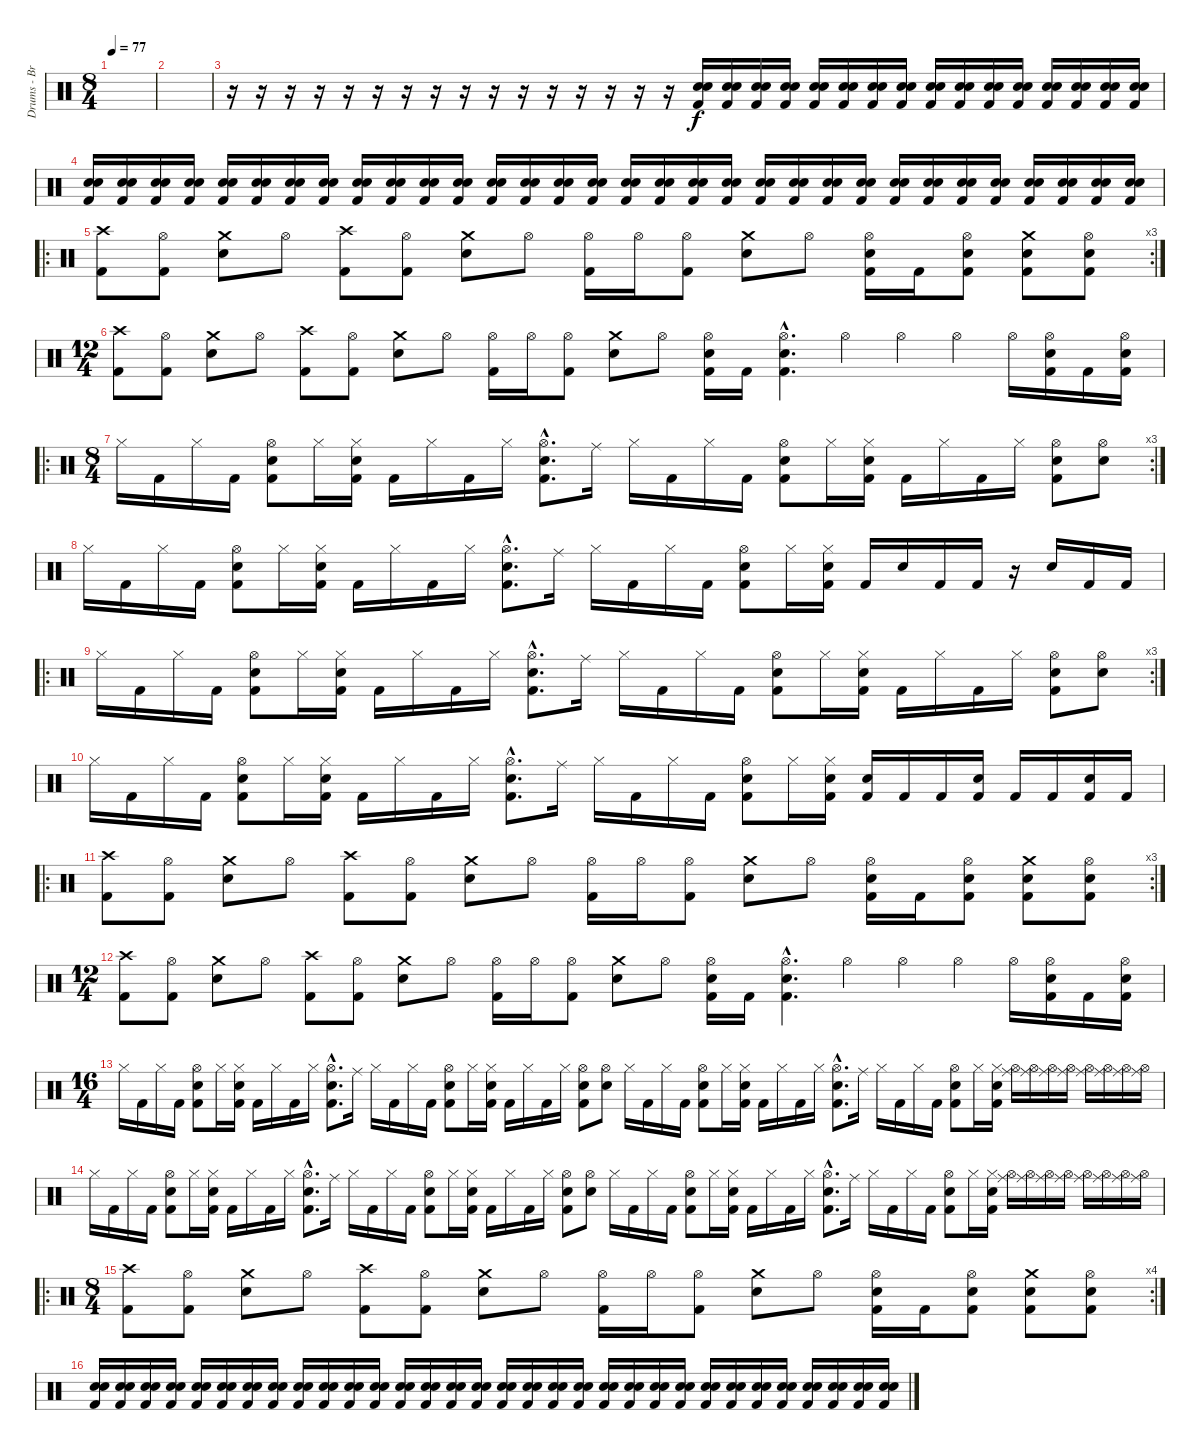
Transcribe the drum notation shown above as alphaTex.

\track ("Drums - Brad Wilk" "Drums - Br") {instrument percussion}
\staff {score}
\articulation defaults
\ts (8 4)
\tempo 77
\clef neutral
\ks c
|
|
r.16 r.16 r.16 r.16 r.16 r.16 r.16 r.16 r.16 r.16 r.16 r.16 r.16 r.16 r.16 r.16 ("Kick (hit) 2" "Electric Snare (hit)" "Snare (hit) 2").16{volume 16} ("Kick (hit) 2" "Electric Snare (hit)" "Snare (hit) 2").16 ("Kick (hit) 2" "Electric Snare (hit)" "Snare (hit) 2").16 ("Kick (hit) 2" "Electric Snare (hit)" "Snare (hit) 2").16 ("Kick (hit) 2" "Electric Snare (hit)" "Snare (hit) 2").16 ("Kick (hit) 2" "Electric Snare (hit)" "Snare (hit) 2").16 ("Kick (hit) 2" "Electric Snare (hit)" "Snare (hit) 2").16 ("Kick (hit) 2" "Electric Snare (hit)" "Snare (hit) 2").16 ("Kick (hit) 2" "Electric Snare (hit)" "Snare (hit) 2").16 ("Kick (hit) 2" "Electric Snare (hit)" "Snare (hit) 2").16 ("Kick (hit) 2" "Electric Snare (hit)" "Snare (hit) 2").16 ("Kick (hit) 2" "Electric Snare (hit)" "Snare (hit) 2").16 ("Kick (hit) 2" "Electric Snare (hit)" "Snare (hit) 2").16 ("Kick (hit) 2" "Electric Snare (hit)" "Snare (hit) 2").16 ("Kick (hit) 2" "Electric Snare (hit)" "Snare (hit) 2").16 ("Kick (hit) 2" "Electric Snare (hit)" "Snare (hit) 2").16 |
("Kick (hit) 2" "Electric Snare (hit)" "Snare (hit) 2").16 ("Kick (hit) 2" "Electric Snare (hit)" "Snare (hit) 2").16 ("Kick (hit) 2" "Electric Snare (hit)" "Snare (hit) 2").16 ("Kick (hit) 2" "Electric Snare (hit)" "Snare (hit) 2").16 ("Kick (hit) 2" "Electric Snare (hit)" "Snare (hit) 2").16 ("Kick (hit) 2" "Electric Snare (hit)" "Snare (hit) 2").16 ("Kick (hit) 2" "Electric Snare (hit)" "Snare (hit) 2").16 ("Kick (hit) 2" "Electric Snare (hit)" "Snare (hit) 2").16 ("Kick (hit) 2" "Electric Snare (hit)" "Snare (hit) 2").16 ("Kick (hit) 2" "Electric Snare (hit)" "Snare (hit) 2").16 ("Kick (hit) 2" "Electric Snare (hit)" "Snare (hit) 2").16 ("Kick (hit) 2" "Electric Snare (hit)" "Snare (hit) 2").16 ("Kick (hit) 2" "Electric Snare (hit)" "Snare (hit) 2").16 ("Kick (hit) 2" "Electric Snare (hit)" "Snare (hit) 2").16 ("Kick (hit) 2" "Electric Snare (hit)" "Snare (hit) 2").16 ("Kick (hit) 2" "Electric Snare (hit)" "Snare (hit) 2").16 ("Kick (hit) 2" "Electric Snare (hit)" "Snare (hit) 2").16 ("Kick (hit) 2" "Electric Snare (hit)" "Snare (hit) 2").16 ("Kick (hit) 2" "Electric Snare (hit)" "Snare (hit) 2").16 ("Kick (hit) 2" "Electric Snare (hit)" "Snare (hit) 2").16 ("Kick (hit) 2" "Electric Snare (hit)" "Snare (hit) 2").16 ("Kick (hit) 2" "Electric Snare (hit)" "Snare (hit) 2").16 ("Kick (hit) 2" "Electric Snare (hit)" "Snare (hit) 2").16 ("Kick (hit) 2" "Electric Snare (hit)" "Snare (hit) 2").16 ("Kick (hit) 2" "Electric Snare (hit)" "Snare (hit) 2").16 ("Kick (hit) 2" "Electric Snare (hit)" "Snare (hit) 2").16 ("Kick (hit) 2" "Electric Snare (hit)" "Snare (hit) 2").16 ("Kick (hit) 2" "Electric Snare (hit)" "Snare (hit) 2").16 ("Kick (hit) 2" "Electric Snare (hit)" "Snare (hit) 2").16 ("Kick (hit) 2" "Electric Snare (hit)" "Snare (hit) 2").16 ("Kick (hit) 2" "Electric Snare (hit)" "Snare (hit) 2").16 ("Kick (hit) 2" "Electric Snare (hit)" "Snare (hit) 2").16 |
\ro
\rc 3
("Crash high (hit)" "Kick (hit) 2").8 ("Hi-Hat (open)" "Kick (hit) 2").8 ("Crash medium (hit)" "Snare (hit) 2").8 "Hi-Hat (open)".8 ("Crash high (hit)" "Kick (hit) 2").8 ("Hi-Hat (open)" "Kick (hit) 2").8 ("Crash medium (hit)" "Snare (hit) 2").8 "Hi-Hat (open)".8 ("Hi-Hat (open)" "Kick (hit) 2").16 "Hi-Hat (open)".16 ("Hi-Hat (open)" "Kick (hit) 2").8 ("Crash medium (hit)" "Snare (hit) 2").8 "Hi-Hat (open)".8 ("Hi-Hat (open)" "Snare (hit) 2" "Kick (hit) 2").16 "Kick (hit) 2".16 ("Hi-Hat (open)" "Snare (hit) 2" "Kick (hit) 2").8 ("Crash medium (hit)" "Snare (hit) 2" "Kick (hit) 2").8 ("Hi-Hat (open)" "Snare (hit) 2" "Kick (hit) 2").8 |
\ts (12 4)
("Crash high (hit)" "Kick (hit) 2").8 ("Hi-Hat (open)" "Kick (hit) 2").8 ("Crash medium (hit)" "Snare (hit) 2").8 "Hi-Hat (open)".8 ("Crash high (hit)" "Kick (hit) 2").8 ("Hi-Hat (open)" "Kick (hit) 2").8 ("Crash medium (hit)" "Snare (hit) 2").8 "Hi-Hat (open)".8 ("Hi-Hat (open)" "Kick (hit) 2").16 "Hi-Hat (open)".16 ("Hi-Hat (open)" "Kick (hit) 2").8 ("Crash medium (hit)" "Snare (hit) 2").8 "Hi-Hat (open)".8 ("Hi-Hat (open)" "Snare (hit) 2" "Kick (hit) 2").16 "Kick (hit) 2".16 ("Hi-Hat (open)"{hac} "Snare (hit) 2"{hac} "Kick (hit) 2"{hac}).4{d} "Hi-Hat (open)".4 "Hi-Hat (open)".4 "Hi-Hat (open)".4 "Hi-Hat (open)".16 ("Hi-Hat (open)" "Snare (hit) 2" "Kick (hit) 2").16 "Kick (hit) 2".16 ("Hi-Hat (open)" "Snare (hit) 2" "Kick (hit) 2").16 |
\ro
\rc 3
\ts (8 4)
"Hi-Hat (closed)".16 "Kick (hit) 2".16 "Hi-Hat (closed)".16 "Kick (hit) 2".16 ("Hi-Hat (open)" "Kick (hit) 2" "Electric Snare (hit)").8 "Hi-Hat (closed)".16 ("Kick (hit) 2" "Electric Snare (hit)" "Hi-Hat (closed)").16 "Kick (hit) 2".16 "Hi-Hat (closed)".16 "Kick (hit) 2".16 "Hi-Hat (closed)".16 ("Hi-Hat (open)"{hac} "Snare (hit) 2"{hac} "Kick (hit) 2"{hac}).8{d} "Ride (middle)".16 "Hi-Hat (closed)".16 "Kick (hit) 2".16 "Hi-Hat (closed)".16 "Kick (hit) 2".16 ("Hi-Hat (open)" "Kick (hit) 2" "Electric Snare (hit)").8 "Hi-Hat (closed)".16 ("Kick (hit) 2" "Electric Snare (hit)" "Hi-Hat (closed)").16 "Kick (hit) 2".16 "Hi-Hat (closed)".16 "Kick (hit) 2".16 "Hi-Hat (closed)".16 ("Hi-Hat (open)" "Snare (hit) 2" "Kick (hit) 2").8 ("Hi-Hat (open)" "Electric Snare (hit)").8 |
"Hi-Hat (closed)".16 "Kick (hit) 2".16 "Hi-Hat (closed)".16 "Kick (hit) 2".16 ("Hi-Hat (open)" "Kick (hit) 2" "Electric Snare (hit)").8 "Hi-Hat (closed)".16 ("Kick (hit) 2" "Electric Snare (hit)" "Hi-Hat (closed)").16 "Kick (hit) 2".16 "Hi-Hat (closed)".16 "Kick (hit) 2".16 "Hi-Hat (closed)".16 ("Hi-Hat (open)"{hac} "Snare (hit) 2"{hac} "Kick (hit) 2"{hac}).8{d} "Ride (middle)".16 "Hi-Hat (closed)".16 "Kick (hit) 2".16 "Hi-Hat (closed)".16 "Kick (hit) 2".16 ("Hi-Hat (open)" "Kick (hit) 2" "Electric Snare (hit)").8 "Hi-Hat (closed)".16 ("Kick (hit) 2" "Electric Snare (hit)" "Hi-Hat (closed)").16 "Kick (hit) 2".16 "Electric Snare (hit)".16 "Kick (hit) 2".16 "Kick (hit) 2".16 r.16 "Electric Snare (hit)".16 "Kick (hit) 2".16 "Kick (hit) 2".16 |
\ro
\rc 3 "Hi-Hat (closed)".16 "Kick (hit) 2".16 "Hi-Hat (closed)".16 "Kick (hit) 2".16
("Hi-Hat (open)" "Kick (hit) 2" "Electric Snare (hit)").8 "Hi-Hat (closed)".16 ("Kick (hit) 2" "Electric Snare (hit)" "Hi-Hat (closed)").16 "Kick (hit) 2".16 "Hi-Hat (closed)".16 "Kick (hit) 2".16 "Hi-Hat (closed)".16 ("Hi-Hat (open)"{hac} "Snare (hit) 2"{hac} "Kick (hit) 2"{hac}).8{d} "Ride (middle)".16 "Hi-Hat (closed)".16 "Kick (hit) 2".16 "Hi-Hat (closed)".16 "Kick (hit) 2".16 ("Hi-Hat (open)" "Kick (hit) 2" "Electric Snare (hit)").8 "Hi-Hat (closed)".16 ("Kick (hit) 2" "Electric Snare (hit)" "Hi-Hat (closed)").16 "Kick (hit) 2".16 "Hi-Hat (closed)".16 "Kick (hit) 2".16 "Hi-Hat (closed)".16 ("Hi-Hat (open)" "Snare (hit) 2" "Kick (hit) 2").8 ("Hi-Hat (open)" "Electric Snare (hit)").8 |
"Hi-Hat (closed)".16 "Kick (hit) 2".16 "Hi-Hat (closed)".16 "Kick (hit) 2".16 ("Hi-Hat (open)" "Kick (hit) 2" "Electric Snare (hit)").8 "Hi-Hat (closed)".16 ("Kick (hit) 2" "Electric Snare (hit)" "Hi-Hat (closed)").16 "Kick (hit) 2".16 "Hi-Hat (closed)".16 "Kick (hit) 2".16 "Hi-Hat (closed)".16 ("Hi-Hat (open)"{hac} "Snare (hit) 2"{hac} "Kick (hit) 2"{hac}).8{d} "Ride (middle)".16 "Hi-Hat (closed)".16 "Kick (hit) 2".16 "Hi-Hat (closed)".16 "Kick (hit) 2".16 ("Hi-Hat (open)" "Kick (hit) 2" "Electric Snare (hit)").8 "Hi-Hat (closed)".16 ("Kick (hit) 2" "Electric Snare (hit)" "Hi-Hat (closed)").16 ("Electric Snare (hit)" "Kick (hit) 2").16 "Kick (hit) 2".16 "Kick (hit) 2".16 ("Electric Snare (hit)" "Kick (hit) 2").16 "Kick (hit) 2".16 "Kick (hit) 2".16 ("Electric Snare (hit)" "Kick (hit) 2").16 "Kick (hit) 2".16 |
\ro
\rc 3
("Crash high (hit)" "Kick (hit) 2").8 ("Hi-Hat (open)" "Kick (hit) 2").8 ("Crash medium (hit)" "Snare (hit) 2").8 "Hi-Hat (open)".8 ("Crash high (hit)" "Kick (hit) 2").8 ("Hi-Hat (open)" "Kick (hit) 2").8 ("Crash medium (hit)" "Snare (hit) 2").8 "Hi-Hat (open)".8 ("Hi-Hat (open)" "Kick (hit) 2").16 "Hi-Hat (open)".16 ("Hi-Hat (open)" "Kick (hit) 2").8 ("Crash medium (hit)" "Snare (hit) 2").8 "Hi-Hat (open)".8 ("Hi-Hat (open)" "Snare (hit) 2" "Kick (hit) 2").16 "Kick (hit) 2".16 ("Hi-Hat (open)" "Snare (hit) 2" "Kick (hit) 2").8 ("Crash medium (hit)" "Snare (hit) 2" "Kick (hit) 2").8 ("Hi-Hat (open)" "Snare (hit) 2" "Kick (hit) 2").8 |
\ts (12 4)
("Crash high (hit)" "Kick (hit) 2").8 ("Hi-Hat (open)" "Kick (hit) 2").8 ("Crash medium (hit)" "Snare (hit) 2").8 "Hi-Hat (open)".8 ("Crash high (hit)" "Kick (hit) 2").8 ("Hi-Hat (open)" "Kick (hit) 2").8 ("Crash medium (hit)" "Snare (hit) 2").8 "Hi-Hat (open)".8 ("Hi-Hat (open)" "Kick (hit) 2").16 "Hi-Hat (open)".16 ("Hi-Hat (open)" "Kick (hit) 2").8 ("Crash medium (hit)" "Snare (hit) 2").8 "Hi-Hat (open)".8 ("Hi-Hat (open)" "Snare (hit) 2" "Kick (hit) 2").16 "Kick (hit) 2".16 ("Hi-Hat (open)"{hac} "Snare (hit) 2"{hac} "Kick (hit) 2"{hac}).4{d} "Hi-Hat (open)".4 "Hi-Hat (open)".4 "Hi-Hat (open)".4 "Hi-Hat (open)".16 ("Hi-Hat (open)" "Snare (hit) 2" "Kick (hit) 2").16 "Kick (hit) 2".16 ("Hi-Hat (open)" "Snare (hit) 2" "Kick (hit) 2").16 |
\ts (16 4)
"Hi-Hat (closed)".16 "Kick (hit) 2".16 "Hi-Hat (closed)".16 "Kick (hit) 2".16 ("Hi-Hat (open)" "Kick (hit) 2" "Electric Snare (hit)").8 "Hi-Hat (closed)".16 ("Kick (hit) 2" "Electric Snare (hit)" "Hi-Hat (closed)").16 "Kick (hit) 2".16 "Hi-Hat (closed)".16 "Kick (hit) 2".16 "Hi-Hat (closed)".16 ("Hi-Hat (open)"{hac} "Snare (hit) 2"{hac} "Kick (hit) 2"{hac}).8{d} "Ride (middle)".16 "Hi-Hat (closed)".16 "Kick (hit) 2".16 "Hi-Hat (closed)".16 "Kick (hit) 2".16 ("Hi-Hat (open)" "Kick (hit) 2" "Electric Snare (hit)").8 "Hi-Hat (closed)".16 ("Kick (hit) 2" "Electric Snare (hit)" "Hi-Hat (closed)").16 "Kick (hit) 2".16 "Hi-Hat (closed)".16 "Kick (hit) 2".16 "Hi-Hat (closed)".16 ("Hi-Hat (open)" "Snare (hit) 2" "Kick (hit) 2").8 ("Hi-Hat (open)" "Electric Snare (hit)").8 "Hi-Hat (closed)".16 "Kick (hit) 2".16 "Hi-Hat (closed)".16 "Kick (hit) 2".16 ("Hi-Hat (open)" "Kick (hit) 2" "Electric Snare (hit)").8 "Hi-Hat (closed)".16 ("Kick (hit) 2" "Electric Snare (hit)" "Hi-Hat (closed)").16 "Kick (hit) 2".16 "Hi-Hat (closed)".16 "Kick (hit) 2".16 "Hi-Hat (closed)".16 ("Hi-Hat (open)"{hac} "Snare (hit) 2"{hac} "Kick (hit) 2"{hac}).8{d} "Ride (middle)".16 "Hi-Hat (closed)".16 "Kick (hit) 2".16 "Hi-Hat (closed)".16 "Kick (hit) 2".16 ("Hi-Hat (open)" "Kick (hit) 2" "Electric Snare (hit)").8 "Hi-Hat (closed)".16 ("Kick (hit) 2" "Electric Snare (hit)" "Hi-Hat (closed)").16 ("Hi-Hat (open)" "Ride (middle)").16 ("Hi-Hat (open)" "Ride (middle)").16 ("Hi-Hat (open)" "Ride (middle)").16 ("Hi-Hat (open)" "Ride (middle)").16 ("Hi-Hat (open)" "Ride (middle)").16 ("Hi-Hat (open)" "Ride (middle)").16 ("Hi-Hat (open)" "Ride (middle)").16 ("Hi-Hat (open)" "Ride (middle)").16 |
"Hi-Hat (closed)".16 "Kick (hit) 2".16 "Hi-Hat (closed)".16 "Kick (hit) 2".16 ("Hi-Hat (open)" "Kick (hit) 2" "Electric Snare (hit)").8 "Hi-Hat (closed)".16 ("Kick (hit) 2" "Electric Snare (hit)" "Hi-Hat (closed)").16 "Kick (hit) 2".16 "Hi-Hat (closed)".16 "Kick (hit) 2".16 "Hi-Hat (closed)".16 ("Hi-Hat (open)"{hac} "Snare (hit) 2"{hac} "Kick (hit) 2"{hac}).8{d} "Ride (middle)".16 "Hi-Hat (closed)".16 "Kick (hit) 2".16 "Hi-Hat (closed)".16 "Kick (hit) 2".16 ("Hi-Hat (open)" "Kick (hit) 2" "Electric Snare (hit)").8 "Hi-Hat (closed)".16 ("Kick (hit) 2" "Electric Snare (hit)" "Hi-Hat (closed)").16 "Kick (hit) 2".16 "Hi-Hat (closed)".16 "Kick (hit) 2".16 "Hi-Hat (closed)".16 ("Hi-Hat (open)" "Snare (hit) 2" "Kick (hit) 2").8 ("Hi-Hat (open)" "Electric Snare (hit)").8 "Hi-Hat (closed)".16 "Kick (hit) 2".16 "Hi-Hat (closed)".16 "Kick (hit) 2".16 ("Hi-Hat (open)" "Kick (hit) 2" "Electric Snare (hit)").8 "Hi-Hat (closed)".16 ("Kick (hit) 2" "Electric Snare (hit)" "Hi-Hat (closed)").16 "Kick (hit) 2".16 "Hi-Hat (closed)".16 "Kick (hit) 2".16 "Hi-Hat (closed)".16 ("Hi-Hat (open)"{hac} "Snare (hit) 2"{hac} "Kick (hit) 2"{hac}).8{d} "Ride (middle)".16 "Hi-Hat (closed)".16 "Kick (hit) 2".16 "Hi-Hat (closed)".16 "Kick (hit) 2".16 ("Hi-Hat (open)" "Kick (hit) 2" "Electric Snare (hit)").8 "Hi-Hat (closed)".16 ("Kick (hit) 2" "Electric Snare (hit)" "Hi-Hat (closed)").16 ("Hi-Hat (open)" "Ride (middle)").16 ("Hi-Hat (open)" "Ride (middle)").16 ("Hi-Hat (open)" "Ride (middle)").16 ("Hi-Hat (open)" "Ride (middle)").16 ("Hi-Hat (open)" "Ride (middle)").16 ("Hi-Hat (open)" "Ride (middle)").16 ("Hi-Hat (open)" "Ride (middle)").16 ("Hi-Hat (open)" "Ride (middle)").16 |
\ro
\rc 4
\ts (8 4)
("Crash high (hit)" "Kick (hit) 2").8 ("Hi-Hat (open)" "Kick (hit) 2").8 ("Crash medium (hit)" "Snare (hit) 2").8 "Hi-Hat (open)".8 ("Crash high (hit)" "Kick (hit) 2").8 ("Hi-Hat (open)" "Kick (hit) 2").8 ("Crash medium (hit)" "Snare (hit) 2").8 "Hi-Hat (open)".8 ("Hi-Hat (open)" "Kick (hit) 2").16 "Hi-Hat (open)".16 ("Hi-Hat (open)" "Kick (hit) 2").8 ("Crash medium (hit)" "Snare (hit) 2").8 "Hi-Hat (open)".8 ("Hi-Hat (open)" "Snare (hit) 2" "Kick (hit) 2").16 "Kick (hit) 2".16 ("Hi-Hat (open)" "Snare (hit) 2" "Kick (hit) 2").8 ("Crash medium (hit)" "Snare (hit) 2" "Kick (hit) 2").8 ("Hi-Hat (open)" "Snare (hit) 2" "Kick (hit) 2").8 |
("Kick (hit) 2" "Electric Snare (hit)" "Snare (hit) 2").16{volume 0} ("Kick (hit) 2" "Electric Snare (hit)" "Snare (hit) 2").16{volume 16} ("Kick (hit) 2" "Electric Snare (hit)" "Snare (hit) 2").16 ("Kick (hit) 2" "Electric Snare (hit)" "Snare (hit) 2").16 ("Kick (hit) 2" "Electric Snare (hit)" "Snare (hit) 2").16 ("Kick (hit) 2" "Electric Snare (hit)" "Snare (hit) 2").16 ("Kick (hit) 2" "Electric Snare (hit)" "Snare (hit) 2").16 ("Kick (hit) 2" "Electric Snare (hit)" "Snare (hit) 2").16 ("Kick (hit) 2" "Electric Snare (hit)" "Snare (hit) 2").16 ("Kick (hit) 2" "Electric Snare (hit)" "Snare (hit) 2").16 ("Kick (hit) 2" "Electric Snare (hit)" "Snare (hit) 2").16 ("Kick (hit) 2" "Electric Snare (hit)" "Snare (hit) 2").16 ("Kick (hit) 2" "Electric Snare (hit)" "Snare (hit) 2").16 ("Kick (hit) 2" "Electric Snare (hit)" "Snare (hit) 2").16 ("Kick (hit) 2" "Electric Snare (hit)" "Snare (hit) 2").16 ("Kick (hit) 2" "Electric Snare (hit)" "Snare (hit) 2").16 ("Kick (hit) 2" "Electric Snare (hit)" "Snare (hit) 2").16 ("Kick (hit) 2" "Electric Snare (hit)" "Snare (hit) 2").16 ("Kick (hit) 2" "Electric Snare (hit)" "Snare (hit) 2").16 ("Kick (hit) 2" "Electric Snare (hit)" "Snare (hit) 2").16 ("Kick (hit) 2" "Electric Snare (hit)" "Snare (hit) 2").16 ("Kick (hit) 2" "Electric Snare (hit)" "Snare (hit) 2").16 ("Kick (hit) 2" "Electric Snare (hit)" "Snare (hit) 2").16 ("Kick (hit) 2" "Electric Snare (hit)" "Snare (hit) 2").16 ("Kick (hit) 2" "Electric Snare (hit)" "Snare (hit) 2").16 ("Kick (hit) 2" "Electric Snare (hit)" "Snare (hit) 2").16 ("Kick (hit) 2" "Electric Snare (hit)" "Snare (hit) 2").16 ("Kick (hit) 2" "Electric Snare (hit)" "Snare (hit) 2").16 ("Kick (hit) 2" "Electric Snare (hit)" "Snare (hit) 2").16 ("Kick (hit) 2" "Electric Snare (hit)" "Snare (hit) 2").16 ("Kick (hit) 2" "Electric Snare (hit)" "Snare (hit) 2").16 ("Kick (hit) 2" "Electric Snare (hit)" "Snare (hit) 2").16
